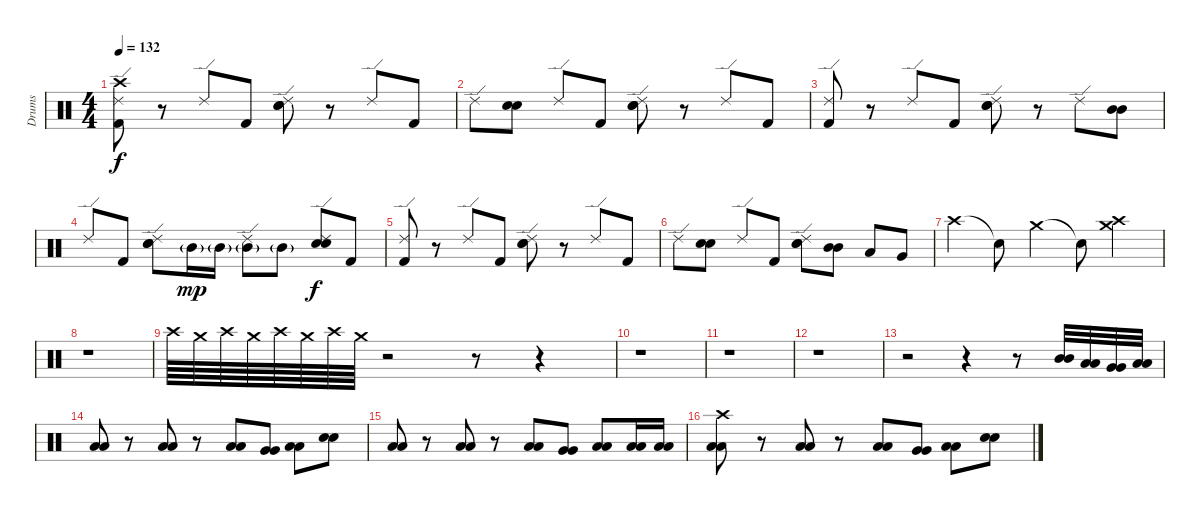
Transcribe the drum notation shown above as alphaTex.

\track ("Drums" "Drums") {instrument percussion}
\staff {score}
\articulation defaults
\ts (4 4)
\tempo 132
\clef neutral
\ks c
("Crash high (hit)" "Ride (edge) 2" "Kick (hit) 2").8{dy f} r.8 "Ride (edge) 2".8 "Kick (hit) 2".8 ("Ride (edge) 2" "Electric Snare (hit)" "Electric Snare (hit)").8 r.8 "Ride (edge) 2".8 "Kick (hit) 2".8 |
"Ride (edge) 2".8 ("Electric Snare (hit)" "Electric Snare (hit)").8 "Ride (edge) 2".8 "Kick (hit) 2".8 ("Ride (edge) 2" "Electric Snare (hit)" "Electric Snare (hit)").8 r.8 "Ride (edge) 2".8 "Kick (hit) 2".8 |
("Ride (edge) 2" "Kick (hit) 2").8 r.8 "Ride (edge) 2".8 "Kick (hit) 2".8 ("Ride (edge) 2" "Electric Snare (hit)" "Electric Snare (hit)").8 r.8 "Ride (edge) 2".8 ("Mid Tom (hit)" "Mid Tom (hit)").8 |
"Ride (edge) 2".8 "Kick (hit) 2".8 ("Ride (edge) 2" "Electric Snare (hit)" "Electric Snare (hit)").8 "Mid Tom (hit)"{g}.16{dy mp} "Mid Tom (hit)"{g}.16 ("Ride (edge) 2" "Mid Tom (hit)"{g}).8 "Mid Tom (hit)"{g}.8 ("Ride (edge) 2" "Electric Snare (hit)" "Electric Snare (hit)").8{dy f} "Kick (hit) 2".8 |
("Ride (edge) 2" "Kick (hit) 2").8 r.8 "Ride (edge) 2".8 "Kick (hit) 2".8 ("Ride (edge) 2" "Electric Snare (hit)" "Electric Snare (hit)").8 r.8 "Ride (edge) 2".8 "Kick (hit) 2".8 |
"Ride (edge) 2".8 ("Electric Snare (hit)" "Electric Snare (hit)").8 "Ride (edge) 2".8 "Kick (hit) 2".8 ("Ride (edge) 2" "Electric Snare (hit)" "Electric Snare (hit)").8 ("Mid Tom (hit)" "Mid Tom (hit)").8 "Low Tom (hit)".8 "Very Low Tom (hit)".8 |
"Crash high (hit)".4 "Snare (hit)"{t}.8 "Crash medium (hit)".4 "Snare (hit)"{t}.8 ("Crash high (hit)" "Crash medium (hit)").4 |
r.1 |
"Crash high (hit)".64 "Crash medium (hit)".64 "Crash high (hit)".64 "Crash medium (hit)".64 "Crash high (hit)".64 "Crash medium (hit)".64 "Crash high (hit)".64 "Crash medium (hit)".64 r.2 r.8 r.4 |
r.1 |
r.1 |
r.1 |
r.2 r.4 r.8 ("Mid Tom (hit)" "Mid Tom (hit)").32 ("Low Tom (hit)" "Low Tom (hit)").32 ("Very Low Tom (hit)" "Very Low Tom (hit)").32 ("Low Floor Tom (hit)" "Low Floor Tom (hit)").32 |
("Low Floor Tom (hit)" "Low Floor Tom (hit)").8 r.8 ("Low Tom (hit)" "Low Tom (hit)").8 r.8 ("Low Floor Tom (hit)" "Low Floor Tom (hit)").8 ("Very Low Tom (hit)" "Very Low Tom (hit)").8 ("Low Floor Tom (hit)" "Low Floor Tom (hit)").8 ("Electric Snare (hit)" "Electric Snare (hit)").8 |
("Low Floor Tom (hit)" "Low Floor Tom (hit)").8 r.8 ("Low Tom (hit)" "Low Tom (hit)").8 r.8 ("Low Floor Tom (hit)" "Low Floor Tom (hit)").8 ("Very Low Tom (hit)" "Very Low Tom (hit)").8 ("Low Floor Tom (hit)" "Low Floor Tom (hit)").8 ("Low Tom (hit)" "Low Tom (hit)").16 ("Low Tom (hit)" "Low Tom (hit)").16 |
("Crash high (hit)" "Low Floor Tom (hit)" "Low Floor Tom (hit)").8 r.8 ("Low Tom (hit)" "Low Tom (hit)").8 r.8 ("Low Floor Tom (hit)" "Low Floor Tom (hit)").8 ("Very Low Tom (hit)" "Very Low Tom (hit)").8 ("Low Floor Tom (hit)" "Low Floor Tom (hit)").8 ("Electric Snare (hit)" "Electric Snare (hit)").8
